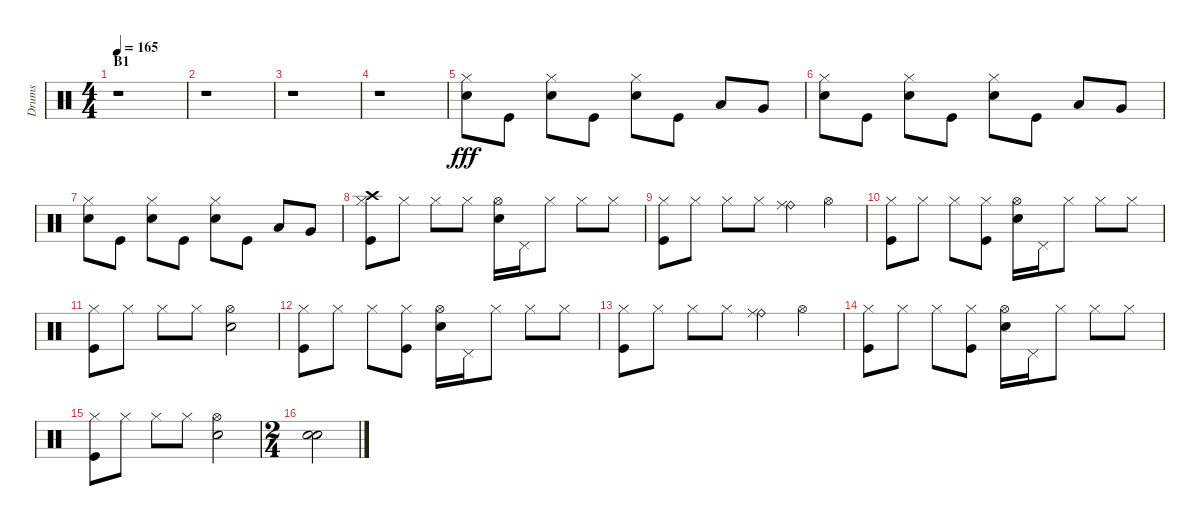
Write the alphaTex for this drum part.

\track ("Drums" "Drums") {instrument percussion}
\staff {score}
\articulation defaults
\ts (4 4)
\section ("" "B1")
\tempo 165
\clef neutral
\ks c
r.1{dy fff} |
r.1 |
r.1 |
r.1 |
("Hi-Hat (closed)" "Snare (hit) 2").8 "Kick (hit)".8 ("Hi-Hat (closed)" "Snare (hit) 2").8 "Kick (hit)".8 ("Hi-Hat (closed)" "Snare (hit) 2").8 "Kick (hit)".8 "Low Tom (hit)".8 "Very Low Tom (hit)".8 |
("Hi-Hat (closed)" "Snare (hit) 2").8 "Kick (hit)".8 ("Hi-Hat (closed)" "Snare (hit) 2").8 "Kick (hit)".8 ("Hi-Hat (closed)" "Snare (hit) 2").8 "Kick (hit)".8 "Low Tom (hit)".8 "Very Low Tom (hit)".8 |
("Hi-Hat (closed)" "Snare (hit) 2").8 "Kick (hit)".8 ("Hi-Hat (closed)" "Snare (hit) 2").8 "Kick (hit)".8 ("Hi-Hat (closed)" "Snare (hit) 2").8 "Kick (hit)".8 "Low Tom (hit)".8 "Very Low Tom (hit)".8 |
("Hi-Hat (closed)" "Crash high (hit)" "Kick (hit)").8 "Hi-Hat (closed)".8 "Hi-Hat (closed)".8 "Hi-Hat (closed)".8 ("Hi-Hat (open)" "Snare (hit) 2").16 "Pedal Hi-Hat (hit)".16 "Hi-Hat (closed)".8 "Hi-Hat (closed)".8 "Hi-Hat (closed)".8 |
("Hi-Hat (closed)" "Kick (hit)").8 "Hi-Hat (closed)".8 "Hi-Hat (closed)".8 "Hi-Hat (closed)".8 ("Ride (bell)" "Ride (middle)").4 "Hi-Hat (open)".4 |
("Hi-Hat (closed)" "Kick (hit)").8 "Hi-Hat (closed)".8 "Hi-Hat (closed)".8 ("Hi-Hat (closed)" "Kick (hit)").8 ("Hi-Hat (open)" "Snare (hit) 2").16 "Pedal Hi-Hat (hit)".16 "Hi-Hat (closed)".8 "Hi-Hat (closed)".8 "Hi-Hat (closed)".8 |
("Hi-Hat (closed)" "Kick (hit)").8 "Hi-Hat (closed)".8 "Hi-Hat (closed)".8 "Hi-Hat (closed)".8 ("Hi-Hat (open)" "Snare (hit) 2").2 |
("Hi-Hat (closed)" "Kick (hit)").8 "Hi-Hat (closed)".8 "Hi-Hat (closed)".8 ("Hi-Hat (closed)" "Kick (hit)").8 ("Hi-Hat (open)" "Snare (hit) 2").16 "Pedal Hi-Hat (hit)".16 "Hi-Hat (closed)".8 "Hi-Hat (closed)".8 "Hi-Hat (closed)".8 |
("Hi-Hat (closed)" "Kick (hit)").8 "Hi-Hat (closed)".8 "Hi-Hat (closed)".8 "Hi-Hat (closed)".8 ("Ride (bell)" "Ride (middle)").4 "Hi-Hat (open)".4 |
("Hi-Hat (closed)" "Kick (hit)").8 "Hi-Hat (closed)".8 "Hi-Hat (closed)".8 ("Hi-Hat (closed)" "Kick (hit)").8 ("Hi-Hat (open)" "Snare (hit) 2").16 "Pedal Hi-Hat (hit)".16 "Hi-Hat (closed)".8 "Hi-Hat (closed)".8 "Hi-Hat (closed)".8 |
("Hi-Hat (closed)" "Kick (hit)").8 "Hi-Hat (closed)".8 "Hi-Hat (closed)".8 "Hi-Hat (closed)".8 ("Hi-Hat (open)" "Snare (hit) 2").2 |
\ts (2 4)
("Electric Snare (hit)" "Snare (hit) 2").2
